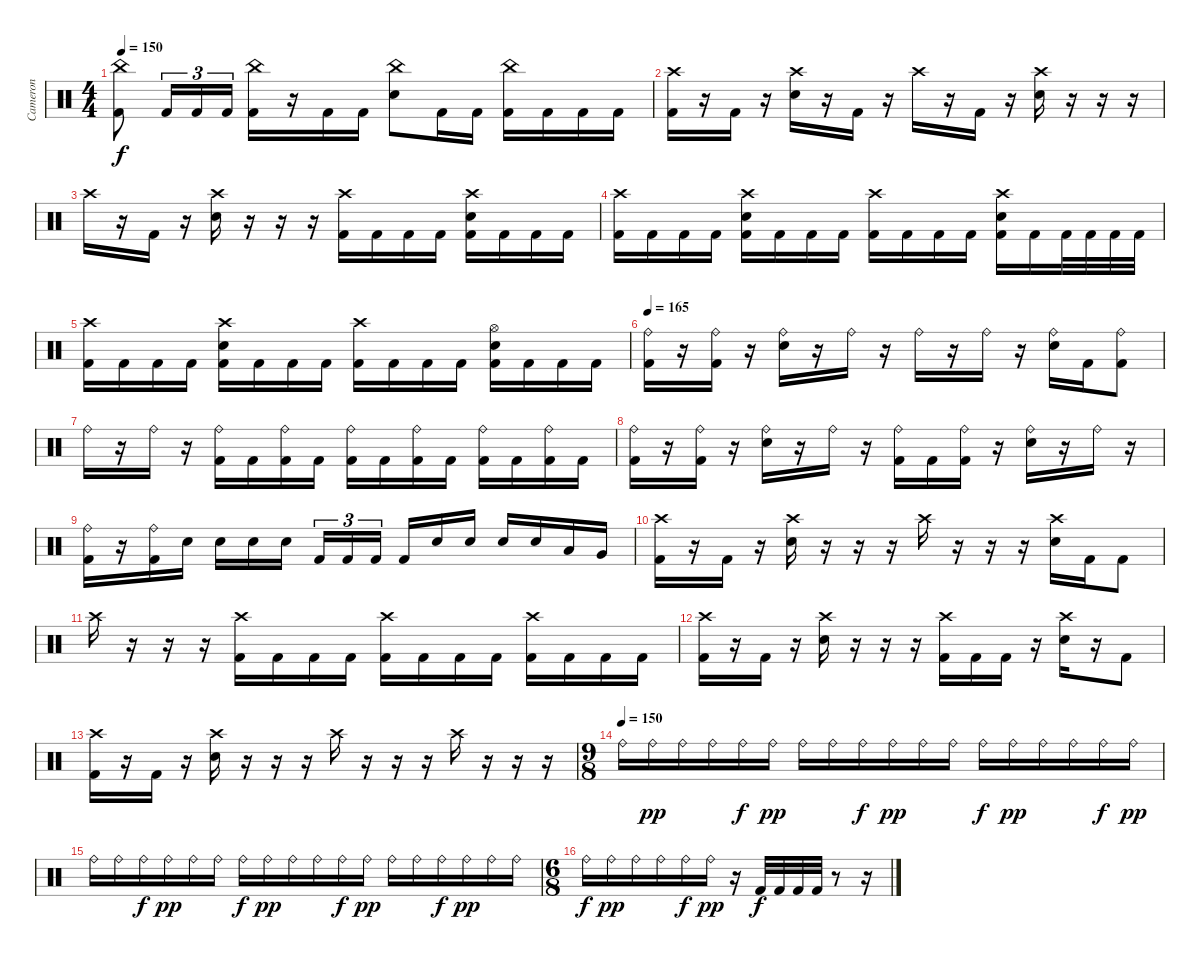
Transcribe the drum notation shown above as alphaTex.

\track ("Cameron" "Cameron") {instrument percussion}
\staff {score}
\articulation defaults
\ts (4 4)
\tempo 150
\clef neutral
\ks c
("Kick (hit) 2" "China (hit)").8{dy f} "Kick (hit) 2".16{tu (3 2)} "Kick (hit) 2".16{tu (3 2)} "Kick (hit) 2".16{tu (3 2)} ("Kick (hit) 2" "China (hit)").16 r.16 "Kick (hit) 2".16 "Kick (hit) 2".16 ("Electric Snare (hit)" "China (hit)").8 "Kick (hit) 2".16 "Kick (hit) 2".16 ("Kick (hit) 2" "China (hit)").16 "Kick (hit) 2".16 "Kick (hit) 2".16 "Kick (hit) 2".16 |
("Kick (hit) 2" "Crash high (hit)").16 r.16 "Kick (hit) 2".16 r.16 ("Electric Snare (hit)" "Crash high (hit)").16 r.16 "Kick (hit) 2".16 r.16 "Crash high (hit)".16 r.16 "Kick (hit) 2".16 r.16 ("Electric Snare (hit)" "Crash high (hit)").16 r.16 r.16 r.16 |
"Crash high (hit)".16 r.16 "Kick (hit) 2".16 r.16 ("Electric Snare (hit)" "Crash high (hit)").16 r.16 r.16 r.16 ("Kick (hit) 2" "Crash high (hit)").16 "Kick (hit) 2".16 "Kick (hit) 2".16 "Kick (hit) 2".16 ("Kick (hit) 2" "Electric Snare (hit)" "Crash high (hit)").16 "Kick (hit) 2".16 "Kick (hit) 2".16 "Kick (hit) 2".16 |
("Kick (hit) 2" "Crash high (hit)").16 "Kick (hit) 2".16 "Kick (hit) 2".16 "Kick (hit) 2".16 ("Kick (hit) 2" "Electric Snare (hit)" "Crash high (hit)").16 "Kick (hit) 2".16 "Kick (hit) 2".16 "Kick (hit) 2".16 ("Kick (hit) 2" "Crash high (hit)").16 "Kick (hit) 2".16 "Kick (hit) 2".16 "Kick (hit) 2".16 ("Kick (hit) 2" "Electric Snare (hit)" "Crash high (hit)").16 "Kick (hit) 2".16 "Kick (hit) 2".32 "Kick (hit) 2".32 "Kick (hit) 2".32 "Kick (hit) 2".32 |
("Kick (hit) 2" "Crash high (hit)").16 "Kick (hit) 2".16 "Kick (hit) 2".16 "Kick (hit) 2".16 ("Kick (hit) 2" "Electric Snare (hit)" "Crash high (hit)").16 "Kick (hit) 2".16 "Kick (hit) 2".16 "Kick (hit) 2".16 ("Kick (hit) 2" "Crash high (hit)").16 "Kick (hit) 2".16 "Kick (hit) 2".16 "Kick (hit) 2".16 ("Kick (hit) 2" "Electric Snare (hit)" "Hi-Hat (open)").16 "Kick (hit) 2".16 "Kick (hit) 2".16 "Kick (hit) 2".16 |
\tempo 165
("Kick (hit) 2" "Ride (bell)").16 r.16 ("Kick (hit) 2" "Ride (bell)").16 r.16 ("Electric Snare (hit)" "Ride (bell)").16 r.16 "Ride (bell)".16 r.16 "Ride (bell)".16 r.16 "Ride (bell)".16 r.16 ("Electric Snare (hit)" "Ride (bell)").16 "Kick (hit) 2".16 ("Kick (hit) 2" "Ride (bell)").8 |
"Ride (bell)".16 r.16 "Ride (bell)".16 r.16 ("Kick (hit) 2" "Ride (bell)").16 "Kick (hit) 2".16 ("Kick (hit) 2" "Ride (bell)").16 "Kick (hit) 2".16 ("Kick (hit) 2" "Ride (bell)").16 "Kick (hit) 2".16 ("Kick (hit) 2" "Ride (bell)").16 "Kick (hit) 2".16 ("Kick (hit) 2" "Ride (bell)").16 "Kick (hit) 2".16 ("Kick (hit) 2" "Ride (bell)").16 "Kick (hit) 2".16 |
("Kick (hit) 2" "Ride (bell)").16 r.16 ("Kick (hit) 2" "Ride (bell)").16 r.16 ("Electric Snare (hit)" "Ride (bell)").16 r.16 "Ride (bell)".16 r.16 ("Kick (hit) 2" "Ride (bell)").16 "Kick (hit) 2".16 ("Kick (hit) 2" "Ride (bell)").16 r.16 ("Electric Snare (hit)" "Ride (bell)").16 r.16 "Ride (bell)".16 r.16 |
("Kick (hit) 2" "Ride (bell)").16 r.16 ("Kick (hit) 2" "Ride (bell)").16 "Electric Snare (hit)".16 "Electric Snare (hit)".16 "Electric Snare (hit)".16 "Electric Snare (hit)".16{beam splitsecondary} "Kick (hit) 2".16{tu (3 2)} "Kick (hit) 2".16{tu (3 2)} "Kick (hit) 2".16{tu (3 2) beam splitsecondary} "Kick (hit) 2".16 "Electric Snare (hit)".16 "Electric Snare (hit)".16 "Electric Snare (hit)".16 "Electric Snare (hit)".16 "Low Tom (hit)".16 "Very Low Tom (hit)".16 |
("Kick (hit) 2" "Crash high (hit)").16 r.16 "Kick (hit) 2".16 r.16 ("Electric Snare (hit)" "Crash high (hit)").16 r.16 r.16 r.16 "Crash high (hit)".16 r.16 r.16 r.16 ("Electric Snare (hit)" "Crash high (hit)").16 "Kick (hit) 2".16 "Kick (hit) 2".8 |
"Crash high (hit)".16 r.16 r.16 r.16 ("Kick (hit) 2" "Crash high (hit)").16 "Kick (hit) 2".16 "Kick (hit) 2".16 "Kick (hit) 2".16 ("Kick (hit) 2" "Crash high (hit)").16 "Kick (hit) 2".16 "Kick (hit) 2".16 "Kick (hit) 2".16 ("Kick (hit) 2" "Crash high (hit)").16 "Kick (hit) 2".16 "Kick (hit) 2".16 "Kick (hit) 2".16 |
("Kick (hit) 2" "Crash high (hit)").16 r.16 "Kick (hit) 2".16 r.16 ("Electric Snare (hit)" "Crash high (hit)").16 r.16 r.16 r.16 ("Kick (hit) 2" "Crash high (hit)").16 "Kick (hit) 2".16 "Kick (hit) 2".16 r.16 ("Electric Snare (hit)" "Crash high (hit)").16 r.16 "Kick (hit) 2".8 |
("Kick (hit) 2" "Crash high (hit)").16 r.16 "Kick (hit) 2".16 r.16 ("Electric Snare (hit)" "Crash high (hit)").16 r.16 r.16 r.16 "Crash high (hit)".16 r.16 r.16 r.16 "Crash high (hit)".16 r.16 r.16 r.16 |
\ts (9 8)
\tempo (150)
"Ride (bell)".16 "Ride (bell)".16{dy pp} "Ride (bell)".16 "Ride (bell)".16 "Ride (bell)".16{dy f} "Ride (bell)".16{dy pp} "Ride (bell)".16 "Ride (bell)".16 "Ride (bell)".16{dy f} "Ride (bell)".16{dy pp} "Ride (bell)".16 "Ride (bell)".16 "Ride (bell)".16{dy f} "Ride (bell)".16{dy pp} "Ride (bell)".16 "Ride (bell)".16 "Ride (bell)".16{dy f} "Ride (bell)".16{dy pp} |
"Ride (bell)".16 "Ride (bell)".16 "Ride (bell)".16{dy f} "Ride (bell)".16{dy pp} "Ride (bell)".16 "Ride (bell)".16 "Ride (bell)".16{dy f} "Ride (bell)".16{dy pp} "Ride (bell)".16 "Ride (bell)".16 "Ride (bell)".16{dy f} "Ride (bell)".16{dy pp} "Ride (bell)".16 "Ride (bell)".16 "Ride (bell)".16{dy f} "Ride (bell)".16{dy pp} "Ride (bell)".16 "Ride (bell)".16 |
\ts (6 8)
"Ride (bell)".16{dy f} "Ride (bell)".16{dy pp} "Ride (bell)".16 "Ride (bell)".16 "Ride (bell)".16{dy f} "Ride (bell)".16{dy pp} r.16 "Kick (hit) 2".32{dy f} "Kick (hit) 2".32 "Kick (hit) 2".32 "Kick (hit) 2".32 r.8 r.16
